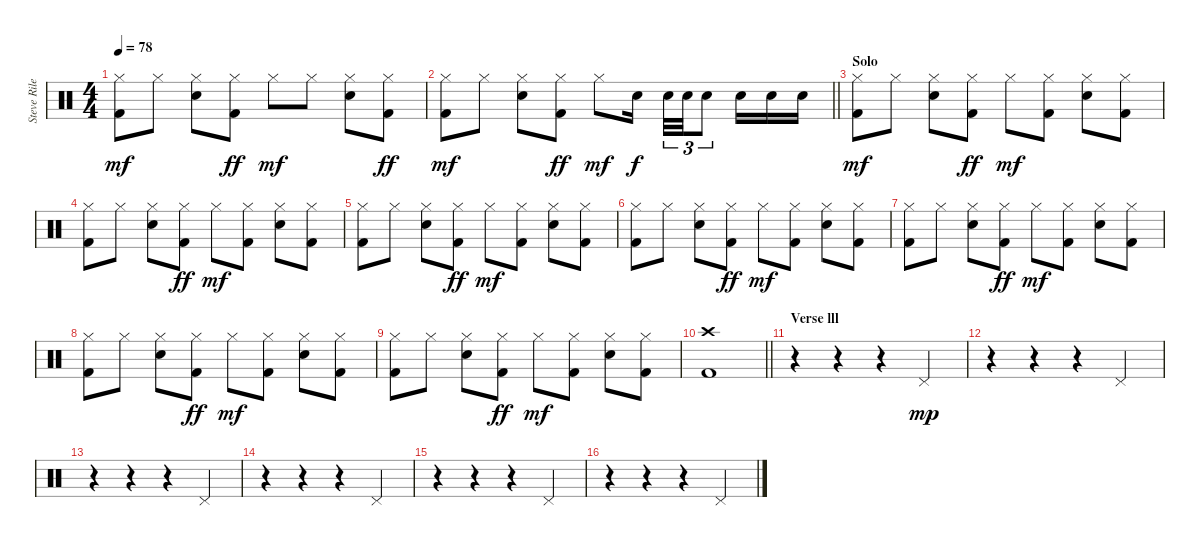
\track ("Steve Riley" "Steve Rile") {instrument percussion}
\staff {score}
\articulation defaults
\ts (4 4)
\tempo 78
\clef neutral
\ks c
("Hi-Hat (closed)" "Kick (hit) 2").8{dy mf} "Hi-Hat (closed)".8 ("Hi-Hat (closed)" "Electric Snare (hit)").8 ("Hi-Hat (closed)" "Kick (hit) 2").8{dy ff} "Hi-Hat (closed)".8{dy mf} "Hi-Hat (closed)".8 ("Hi-Hat (closed)" "Electric Snare (hit)").8 ("Hi-Hat (closed)" "Kick (hit) 2").8{dy ff} |
\barLineRight lightlight
("Hi-Hat (closed)" "Kick (hit) 2").8{dy mf} "Hi-Hat (closed)".8 ("Hi-Hat (closed)" "Electric Snare (hit)").8 ("Hi-Hat (closed)" "Kick (hit) 2").8{dy ff} "Hi-Hat (closed)".8{dy mf} "Electric Snare (hit)".16{dy f beam splitsecondary} "Electric Snare (hit)".32{tu (3 2)} "Electric Snare (hit)".32{tu (3 2)} "Electric Snare (hit)".8{tu (3 2)} "Electric Snare (hit)".16 "Electric Snare (hit)".16 "Electric Snare (hit)".16 |
\section ("" "Solo")
("Hi-Hat (closed)" "Kick (hit) 2").8{dy mf} "Hi-Hat (closed)".8 ("Hi-Hat (closed)" "Electric Snare (hit)").8 ("Hi-Hat (closed)" "Kick (hit) 2").8{dy ff} "Hi-Hat (closed)".8{dy mf} ("Hi-Hat (closed)" "Kick (hit) 2").8 ("Hi-Hat (closed)" "Electric Snare (hit)").8 ("Hi-Hat (closed)" "Kick (hit) 2").8 |
("Hi-Hat (closed)" "Kick (hit) 2").8 "Hi-Hat (closed)".8 ("Hi-Hat (closed)" "Electric Snare (hit)").8 ("Hi-Hat (closed)" "Kick (hit) 2").8{dy ff} "Hi-Hat (closed)".8{dy mf} ("Hi-Hat (closed)" "Kick (hit) 2").8 ("Hi-Hat (closed)" "Electric Snare (hit)").8 ("Hi-Hat (closed)" "Kick (hit) 2").8 |
("Hi-Hat (closed)" "Kick (hit) 2").8 "Hi-Hat (closed)".8 ("Hi-Hat (closed)" "Electric Snare (hit)").8 ("Hi-Hat (closed)" "Kick (hit) 2").8{dy ff} "Hi-Hat (closed)".8{dy mf} ("Hi-Hat (closed)" "Kick (hit) 2").8 ("Hi-Hat (closed)" "Electric Snare (hit)").8 ("Hi-Hat (closed)" "Kick (hit) 2").8 |
("Hi-Hat (closed)" "Kick (hit) 2").8 "Hi-Hat (closed)".8 ("Hi-Hat (closed)" "Electric Snare (hit)").8 ("Hi-Hat (closed)" "Kick (hit) 2").8{dy ff} "Hi-Hat (closed)".8{dy mf} ("Hi-Hat (closed)" "Kick (hit) 2").8 ("Hi-Hat (closed)" "Electric Snare (hit)").8 ("Hi-Hat (closed)" "Kick (hit) 2").8 |
("Hi-Hat (closed)" "Kick (hit) 2").8 "Hi-Hat (closed)".8 ("Hi-Hat (closed)" "Electric Snare (hit)").8 ("Hi-Hat (closed)" "Kick (hit) 2").8{dy ff} "Hi-Hat (closed)".8{dy mf} ("Hi-Hat (closed)" "Kick (hit) 2").8 ("Hi-Hat (closed)" "Electric Snare (hit)").8 ("Hi-Hat (closed)" "Kick (hit) 2").8 |
("Hi-Hat (closed)" "Kick (hit) 2").8 "Hi-Hat (closed)".8 ("Hi-Hat (closed)" "Electric Snare (hit)").8 ("Hi-Hat (closed)" "Kick (hit) 2").8{dy ff} "Hi-Hat (closed)".8{dy mf} ("Hi-Hat (closed)" "Kick (hit) 2").8 ("Hi-Hat (closed)" "Electric Snare (hit)").8 ("Hi-Hat (closed)" "Kick (hit) 2").8 |
("Hi-Hat (closed)" "Kick (hit) 2").8 "Hi-Hat (closed)".8 ("Hi-Hat (closed)" "Electric Snare (hit)").8 ("Hi-Hat (closed)" "Kick (hit) 2").8{dy ff} "Hi-Hat (closed)".8{dy mf} ("Hi-Hat (closed)" "Kick (hit) 2").8 ("Hi-Hat (closed)" "Electric Snare (hit)").8 ("Hi-Hat (closed)" "Kick (hit) 2").8 |
\barLineRight lightlight
("Crash high (hit)" "Kick (hit) 2").1 |
\section ("" "Verse lll")
r.4 r.4 r.4 "Pedal Hi-Hat (hit)".4{dy mp} |
r.4 r.4 r.4 "Pedal Hi-Hat (hit)".4 |
r.4 r.4 r.4 "Pedal Hi-Hat (hit)".4 |
r.4 r.4 r.4 "Pedal Hi-Hat (hit)".4 |
r.4 r.4 r.4 "Pedal Hi-Hat (hit)".4 |
r.4 r.4 r.4 "Pedal Hi-Hat (hit)".4
